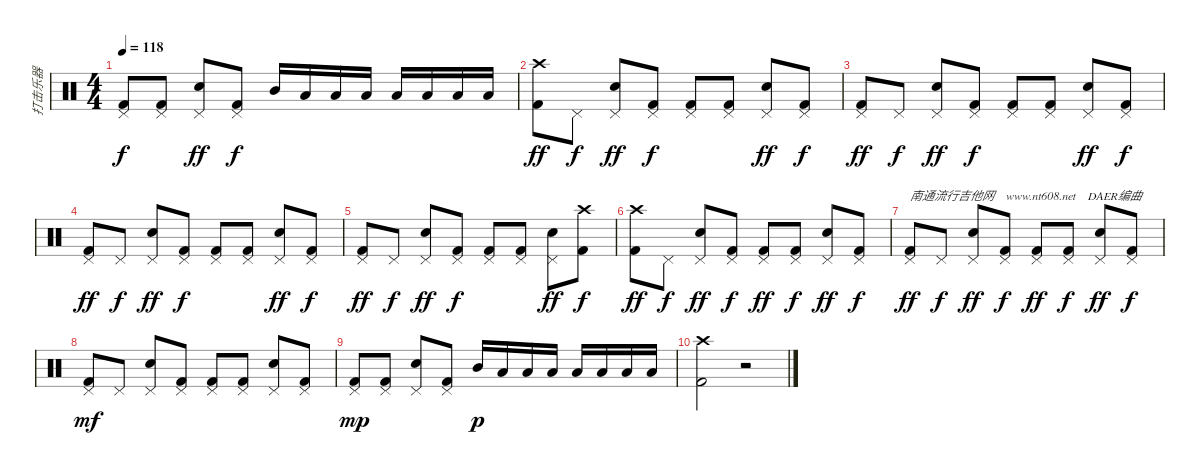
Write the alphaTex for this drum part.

\track ("打击乐器" "打击乐器") {instrument percussion}
\staff {score}
\articulation defaults
\ts (4 4)
\tempo 118
\clef neutral
\ks c
("Pedal Hi-Hat (hit)" "Kick (hit) 2").8{dy f} ("Pedal Hi-Hat (hit)" "Kick (hit) 2").8 ("Pedal Hi-Hat (hit)" "Snare (hit) 2").8{dy ff} ("Pedal Hi-Hat (hit)" "Kick (hit) 2").8{dy f} "Mid Tom (hit)".16 "Low Tom (hit)".16 "Low Tom (hit)".16 "Low Tom (hit)".16 "Low Floor Tom (hit)".16 "Low Floor Tom (hit)".16 "Low Floor Tom (hit)".16 "Low Floor Tom (hit)".16 |
("Crash high (hit)" "Kick (hit) 2").8{dy ff} "Pedal Hi-Hat (hit)".8{dy f} ("Pedal Hi-Hat (hit)" "Snare (hit) 2").8{dy ff} ("Pedal Hi-Hat (hit)" "Kick (hit) 2").8{dy f} ("Pedal Hi-Hat (hit)" "Kick (hit) 2").8 ("Pedal Hi-Hat (hit)" "Kick (hit) 2").8 ("Pedal Hi-Hat (hit)" "Snare (hit) 2").8{dy ff} ("Pedal Hi-Hat (hit)" "Kick (hit) 2").8{dy f} |
("Pedal Hi-Hat (hit)" "Kick (hit) 2").8{dy ff} "Pedal Hi-Hat (hit)".8{dy f} ("Pedal Hi-Hat (hit)" "Snare (hit) 2").8{dy ff} ("Pedal Hi-Hat (hit)" "Kick (hit) 2").8{dy f} ("Pedal Hi-Hat (hit)" "Kick (hit) 2").8 ("Pedal Hi-Hat (hit)" "Kick (hit) 2").8 ("Pedal Hi-Hat (hit)" "Snare (hit) 2").8{dy ff} ("Pedal Hi-Hat (hit)" "Kick (hit) 2").8{dy f} |
("Pedal Hi-Hat (hit)" "Kick (hit) 2").8{dy ff} "Pedal Hi-Hat (hit)".8{dy f} ("Pedal Hi-Hat (hit)" "Snare (hit) 2").8{dy ff} ("Pedal Hi-Hat (hit)" "Kick (hit) 2").8{dy f} ("Pedal Hi-Hat (hit)" "Kick (hit) 2").8 ("Pedal Hi-Hat (hit)" "Kick (hit) 2").8 ("Pedal Hi-Hat (hit)" "Snare (hit) 2").8{dy ff} ("Pedal Hi-Hat (hit)" "Kick (hit) 2").8{dy f} |
("Pedal Hi-Hat (hit)" "Kick (hit) 2").8{dy ff} "Pedal Hi-Hat (hit)".8{dy f} ("Pedal Hi-Hat (hit)" "Snare (hit) 2").8{dy ff} ("Pedal Hi-Hat (hit)" "Kick (hit) 2").8{dy f} ("Pedal Hi-Hat (hit)" "Kick (hit) 2").8 ("Pedal Hi-Hat (hit)" "Kick (hit) 2").8 ("Pedal Hi-Hat (hit)" "Snare (hit) 2").8{dy ff} ("Crash high (hit)" "Kick (hit) 2").8{dy f} |
("Crash high (hit)" "Kick (hit) 2").8{dy ff} "Pedal Hi-Hat (hit)".8{dy f} ("Pedal Hi-Hat (hit)" "Snare (hit) 2").8{dy ff} ("Pedal Hi-Hat (hit)" "Kick (hit) 2").8{dy f} ("Pedal Hi-Hat (hit)" "Kick (hit) 2").8{dy ff} ("Pedal Hi-Hat (hit)" "Kick (hit) 2").8{dy f} ("Pedal Hi-Hat (hit)" "Snare (hit) 2").8{dy ff} ("Pedal Hi-Hat (hit)" "Kick (hit) 2").8{dy f} |
("Pedal Hi-Hat (hit)" "Kick (hit) 2").8{txt "南通流行吉他网    www.nt608.net    DAER编曲" dy ff} "Pedal Hi-Hat (hit)".8{dy f} ("Pedal Hi-Hat (hit)" "Snare (hit) 2").8{dy ff} ("Pedal Hi-Hat (hit)" "Kick (hit) 2").8{dy f} ("Pedal Hi-Hat (hit)" "Kick (hit) 2").8{dy ff} ("Pedal Hi-Hat (hit)" "Kick (hit) 2").8{dy f} ("Pedal Hi-Hat (hit)" "Snare (hit) 2").8{dy ff} ("Pedal Hi-Hat (hit)" "Kick (hit) 2").8{dy f} |
("Pedal Hi-Hat (hit)" "Kick (hit) 2").8{dy mf} "Pedal Hi-Hat (hit)".8 ("Pedal Hi-Hat (hit)" "Snare (hit) 2").8 ("Pedal Hi-Hat (hit)" "Kick (hit) 2").8 ("Pedal Hi-Hat (hit)" "Kick (hit) 2").8 ("Pedal Hi-Hat (hit)" "Kick (hit) 2").8 ("Pedal Hi-Hat (hit)" "Snare (hit) 2").8 ("Pedal Hi-Hat (hit)" "Kick (hit) 2").8 |
("Pedal Hi-Hat (hit)" "Kick (hit) 2").8{dy mp} ("Pedal Hi-Hat (hit)" "Kick (hit) 2").8 ("Pedal Hi-Hat (hit)" "Snare (hit) 2").8 ("Pedal Hi-Hat (hit)" "Kick (hit) 2").8 "Mid Tom (hit)".16{dy p} "Low Tom (hit)".16 "Low Tom (hit)".16 "Low Tom (hit)".16 "Low Floor Tom (hit)".16 "Low Floor Tom (hit)".16 "Low Floor Tom (hit)".16 "Low Floor Tom (hit)".16 |
("Crash high (hit)" "Kick (hit) 2").2 r.2
